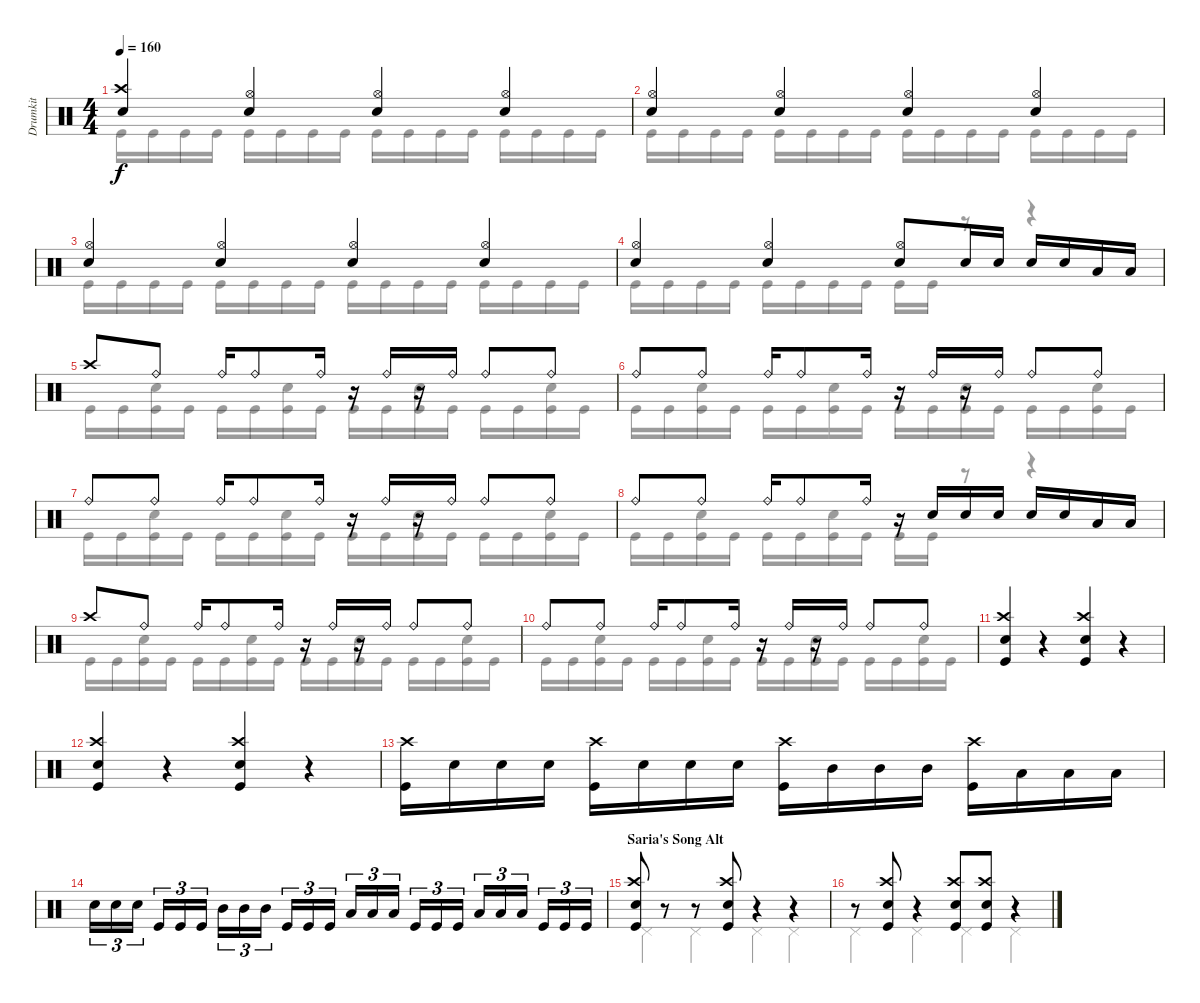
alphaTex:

\track ("Drumkit" "Drumkit") {instrument percussion}
\staff {score}
\articulation defaults
\voice
\ts (4 4)
\tempo 160
\clef neutral
\ks c
("Snare (hit) 2" "Crash high (hit)").4{dy f} ("Snare (hit) 2" "Hi-Hat (open)").4 ("Snare (hit) 2" "Hi-Hat (open)").4 ("Snare (hit) 2" "Hi-Hat (open)").4 |
("Snare (hit) 2" "Hi-Hat (open)").4 ("Snare (hit) 2" "Hi-Hat (open)").4 ("Snare (hit) 2" "Hi-Hat (open)").4 ("Snare (hit) 2" "Hi-Hat (open)").4 |
("Snare (hit) 2" "Hi-Hat (open)").4 ("Snare (hit) 2" "Hi-Hat (open)").4 ("Snare (hit) 2" "Hi-Hat (open)").4 ("Snare (hit) 2" "Hi-Hat (open)").4 |
("Snare (hit) 2" "Hi-Hat (open)").4 ("Snare (hit) 2" "Hi-Hat (open)").4 ("Snare (hit) 2" "Hi-Hat (open)").8 "Snare (hit) 2".16 "Snare (hit) 2".16 "Snare (hit) 2".16 "Snare (hit) 2".16 "Low Tom (hit)".16 "Low Floor Tom (hit)".16 |
"Crash high (hit)".8 "Ride (bell)".8 "Ride (bell)".16 "Ride (bell)".8 "Ride (bell)".16 r.16 "Ride (bell)".16 r.16 "Ride (bell)".16 "Ride (bell)".8 "Ride (bell)".8 |
"Ride (bell)".8 "Ride (bell)".8 "Ride (bell)".16 "Ride (bell)".8 "Ride (bell)".16 r.16 "Ride (bell)".16 r.16 "Ride (bell)".16 "Ride (bell)".8 "Ride (bell)".8 |
"Ride (bell)".8 "Ride (bell)".8 "Ride (bell)".16 "Ride (bell)".8 "Ride (bell)".16 r.16 "Ride (bell)".16 r.16 "Ride (bell)".16 "Ride (bell)".8 "Ride (bell)".8 |
"Ride (bell)".8 "Ride (bell)".8 "Ride (bell)".16 "Ride (bell)".8 "Ride (bell)".16 r.16 "Snare (hit) 2".16 "Snare (hit) 2".16 "Snare (hit) 2".16 "Snare (hit) 2".16 "Snare (hit) 2".16 "Low Tom (hit)".16 "Low Floor Tom (hit)".16 |
"Crash high (hit)".8 "Ride (bell)".8 "Ride (bell)".16 "Ride (bell)".8 "Ride (bell)".16 r.16 "Ride (bell)".16 r.16 "Ride (bell)".16 "Ride (bell)".8 "Ride (bell)".8 |
"Ride (bell)".8 "Ride (bell)".8 "Ride (bell)".16 "Ride (bell)".8 "Ride (bell)".16 r.16 "Ride (bell)".16 r.16 "Ride (bell)".16 "Ride (bell)".8 "Ride (bell)".8 |
("Kick (hit)" "Snare (hit) 2" "Crash high (hit)").4 r.4 ("Kick (hit)" "Snare (hit) 2" "Crash high (hit)").4 r.4 |
("Kick (hit)" "Snare (hit) 2" "Crash high (hit)").4 r.4 ("Kick (hit)" "Snare (hit) 2" "Crash high (hit)").4 r.4 |
("Kick (hit)" "Crash high (hit)").16 "Snare (hit) 2".16 "Snare (hit) 2".16 "Snare (hit) 2".16 ("Kick (hit)" "Crash high (hit)").16 "Snare (hit) 2".16 "Snare (hit) 2".16 "Snare (hit) 2".16 ("Kick (hit)" "Crash high (hit)").16 "Mid Tom (hit)".16 "Mid Tom (hit)".16 "Mid Tom (hit)".16 ("Kick (hit)" "Crash high (hit)").16 "Low Tom (hit)".16 "Low Tom (hit)".16 "Low Tom (hit)".16 |
"Snare (hit) 2".16{tu (3 2)} "Snare (hit) 2".16{tu (3 2)} "Snare (hit) 2".16{tu (3 2)} "Kick (hit)".16{tu (3 2)} "Kick (hit)".16{tu (3 2)} "Kick (hit)".16{tu (3 2)} "Mid Tom (hit)".16{tu (3 2)} "Mid Tom (hit)".16{tu (3 2)} "Mid Tom (hit)".16{tu (3 2)} "Kick (hit)".16{tu (3 2)} "Kick (hit)".16{tu (3 2)} "Kick (hit)".16{tu (3 2)} "Low Tom (hit)".16{tu (3 2)} "Low Tom (hit)".16{tu (3 2)} "Low Tom (hit)".16{tu (3 2)} "Kick (hit)".16{tu (3 2)} "Kick (hit)".16{tu (3 2)} "Kick (hit)".16{tu (3 2)} "Low Floor Tom (hit)".16{tu (3 2)} "Low Floor Tom (hit)".16{tu (3 2)} "Low Floor Tom (hit)".16{tu (3 2)} "Kick (hit)".16{tu (3 2)} "Kick (hit)".16{tu (3 2)} "Kick (hit)".16{tu (3 2)} |
\section ("" "Saria's Song Alt")
("Kick (hit)" "Snare (hit) 2" "Crash high (hit)").8 r.8 r.8 ("Kick (hit)" "Snare (hit) 2" "Crash high (hit)").8 r.4 r.4 |
r.8 ("Kick (hit)" "Snare (hit) 2" "Crash high (hit)").8 r.4 ("Kick (hit)" "Snare (hit) 2" "Crash high (hit)").8 ("Kick (hit)" "Snare (hit) 2" "Crash high (hit)").8 r.4
\voice
\clef neutral
\ottava regular
\simile none
\ks c "Kick (hit)".16{dy f} "Kick (hit)".16 "Kick (hit)".16 "Kick (hit)".16 "Kick (hit)".16 "Kick (hit)".16 "Kick (hit)".16 "Kick (hit)".16 "Kick (hit)".16 "Kick (hit)".16 "Kick (hit)".16 "Kick (hit)".16 "Kick (hit)".16 "Kick (hit)".16 "Kick (hit)".16 "Kick (hit)".16
|
"Kick (hit)".16 "Kick (hit)".16 "Kick (hit)".16 "Kick (hit)".16 "Kick (hit)".16 "Kick (hit)".16 "Kick (hit)".16 "Kick (hit)".16 "Kick (hit)".16 "Kick (hit)".16 "Kick (hit)".16 "Kick (hit)".16 "Kick (hit)".16 "Kick (hit)".16 "Kick (hit)".16 "Kick (hit)".16 |
"Kick (hit)".16 "Kick (hit)".16 "Kick (hit)".16 "Kick (hit)".16 "Kick (hit)".16 "Kick (hit)".16 "Kick (hit)".16 "Kick (hit)".16 "Kick (hit)".16 "Kick (hit)".16 "Kick (hit)".16 "Kick (hit)".16 "Kick (hit)".16 "Kick (hit)".16 "Kick (hit)".16 "Kick (hit)".16 |
"Kick (hit)".16 "Kick (hit)".16 "Kick (hit)".16 "Kick (hit)".16 "Kick (hit)".16 "Kick (hit)".16 "Kick (hit)".16 "Kick (hit)".16 "Kick (hit)".16 "Kick (hit)".16 r.8 r.4 |
"Kick (hit)".16 "Kick (hit)".16 ("Kick (hit)" "Snare (hit) 2").16 "Kick (hit)".16 "Kick (hit)".16 "Kick (hit)".16 ("Kick (hit)" "Snare (hit) 2").16 "Kick (hit)".16 "Kick (hit)".16 "Kick (hit)".16 ("Kick (hit)" "Snare (hit) 2").16 "Kick (hit)".16 "Kick (hit)".16 "Kick (hit)".16 ("Kick (hit)" "Snare (hit) 2").16 "Kick (hit)".16 |
"Kick (hit)".16 "Kick (hit)".16 ("Kick (hit)" "Snare (hit) 2").16 "Kick (hit)".16 "Kick (hit)".16 "Kick (hit)".16 ("Kick (hit)" "Snare (hit) 2").16 "Kick (hit)".16 "Kick (hit)".16 "Kick (hit)".16 ("Kick (hit)" "Snare (hit) 2").16 "Kick (hit)".16 "Kick (hit)".16 "Kick (hit)".16 ("Kick (hit)" "Snare (hit) 2").16 "Kick (hit)".16 |
"Kick (hit)".16 "Kick (hit)".16 ("Kick (hit)" "Snare (hit) 2").16 "Kick (hit)".16 "Kick (hit)".16 "Kick (hit)".16 ("Kick (hit)" "Snare (hit) 2").16 "Kick (hit)".16 "Kick (hit)".16 "Kick (hit)".16 ("Kick (hit)" "Snare (hit) 2").16 "Kick (hit)".16 "Kick (hit)".16 "Kick (hit)".16 ("Kick (hit)" "Snare (hit) 2").16 "Kick (hit)".16 |
"Kick (hit)".16 "Kick (hit)".16 ("Kick (hit)" "Snare (hit) 2").16 "Kick (hit)".16 "Kick (hit)".16 "Kick (hit)".16 ("Kick (hit)" "Snare (hit) 2").16 "Kick (hit)".16 "Kick (hit)".16 "Kick (hit)".16 r.8 r.4 |
"Kick (hit)".16 "Kick (hit)".16 ("Kick (hit)" "Snare (hit) 2").16 "Kick (hit)".16 "Kick (hit)".16 "Kick (hit)".16 ("Kick (hit)" "Snare (hit) 2").16 "Kick (hit)".16 "Kick (hit)".16 "Kick (hit)".16 ("Kick (hit)" "Snare (hit) 2").16 "Kick (hit)".16 "Kick (hit)".16 "Kick (hit)".16 ("Kick (hit)" "Snare (hit) 2").16 "Kick (hit)".16 |
"Kick (hit)".16 "Kick (hit)".16 ("Kick (hit)" "Snare (hit) 2").16 "Kick (hit)".16 "Kick (hit)".16 "Kick (hit)".16 ("Kick (hit)" "Snare (hit) 2").16 "Kick (hit)".16 "Kick (hit)".16 "Kick (hit)".16 ("Kick (hit)" "Snare (hit) 2").16 "Kick (hit)".16 "Kick (hit)".16 "Kick (hit)".16 ("Kick (hit)" "Snare (hit) 2").16 "Kick (hit)".16 |
|
|
|
|
"Pedal Hi-Hat (hit)".4 "Pedal Hi-Hat (hit)".4 "Pedal Hi-Hat (hit)".4 "Pedal Hi-Hat (hit)".4 |
"Pedal Hi-Hat (hit)".4 "Pedal Hi-Hat (hit)".4 "Pedal Hi-Hat (hit)".4 "Pedal Hi-Hat (hit)".4
